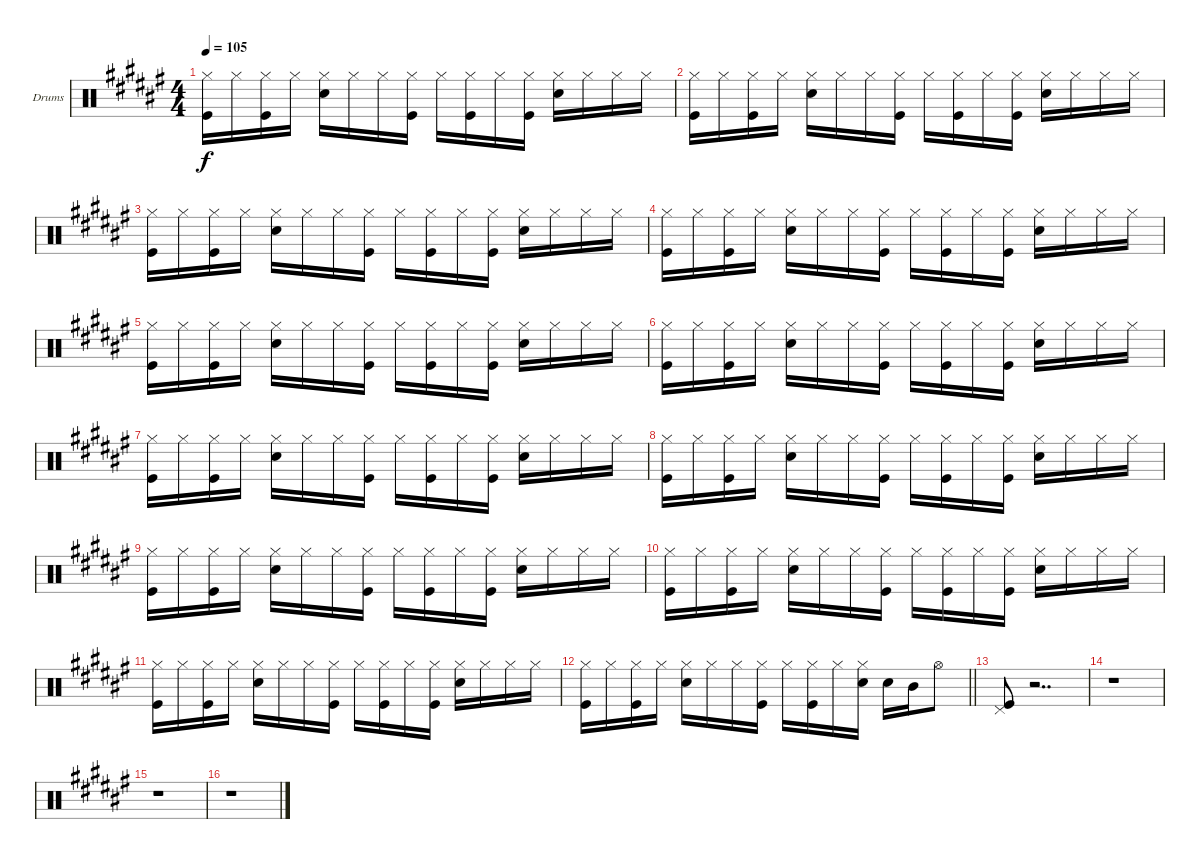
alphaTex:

\bracketExtendMode groupsimilarinstruments
\firstSystemTrackNameOrientation horizontal
\otherSystemsTrackNameOrientation horizontal
\track ("Fab Moretti" "Drums") {instrument percussion}
\staff {score}
\articulation defaults
\ts (4 4)
\tempo 105
\clef neutral
\ks f#
("Hi-Hat (closed)" "Kick (hit)").16{dy f} "Hi-Hat (closed)".16 ("Hi-Hat (closed)" "Kick (hit)").16 "Hi-Hat (closed)".16 ("Snare (hit) 2" "Hi-Hat (closed)").16 "Hi-Hat (closed)".16 "Hi-Hat (closed)".16 ("Hi-Hat (closed)" "Kick (hit)").16 "Hi-Hat (closed)".16 ("Hi-Hat (closed)" "Kick (hit)").16 "Hi-Hat (closed)".16 ("Hi-Hat (closed)" "Kick (hit)").16 ("Snare (hit) 2" "Hi-Hat (closed)").16 "Hi-Hat (closed)".16 "Hi-Hat (closed)".16 "Hi-Hat (closed)".16 |
("Hi-Hat (closed)" "Kick (hit)").16 "Hi-Hat (closed)".16 ("Hi-Hat (closed)" "Kick (hit)").16 "Hi-Hat (closed)".16 ("Snare (hit) 2" "Hi-Hat (closed)").16 "Hi-Hat (closed)".16 "Hi-Hat (closed)".16 ("Hi-Hat (closed)" "Kick (hit)").16 "Hi-Hat (closed)".16 ("Hi-Hat (closed)" "Kick (hit)").16 "Hi-Hat (closed)".16 ("Hi-Hat (closed)" "Kick (hit)").16 ("Snare (hit) 2" "Hi-Hat (closed)").16 "Hi-Hat (closed)".16 "Hi-Hat (closed)".16 "Hi-Hat (closed)".16 |
("Hi-Hat (closed)" "Kick (hit)").16 "Hi-Hat (closed)".16 ("Hi-Hat (closed)" "Kick (hit)").16 "Hi-Hat (closed)".16 ("Snare (hit) 2" "Hi-Hat (closed)").16 "Hi-Hat (closed)".16 "Hi-Hat (closed)".16 ("Hi-Hat (closed)" "Kick (hit)").16 "Hi-Hat (closed)".16 ("Hi-Hat (closed)" "Kick (hit)").16 "Hi-Hat (closed)".16 ("Hi-Hat (closed)" "Kick (hit)").16 ("Snare (hit) 2" "Hi-Hat (closed)").16 "Hi-Hat (closed)".16 "Hi-Hat (closed)".16 "Hi-Hat (closed)".16 |
("Hi-Hat (closed)" "Kick (hit)").16 "Hi-Hat (closed)".16 ("Hi-Hat (closed)" "Kick (hit)").16 "Hi-Hat (closed)".16 ("Snare (hit) 2" "Hi-Hat (closed)").16 "Hi-Hat (closed)".16 "Hi-Hat (closed)".16 ("Hi-Hat (closed)" "Kick (hit)").16 "Hi-Hat (closed)".16 ("Hi-Hat (closed)" "Kick (hit)").16 "Hi-Hat (closed)".16 ("Hi-Hat (closed)" "Kick (hit)").16 ("Snare (hit) 2" "Hi-Hat (closed)").16 "Hi-Hat (closed)".16 "Hi-Hat (closed)".16 "Hi-Hat (closed)".16 |
("Hi-Hat (closed)" "Kick (hit)").16 "Hi-Hat (closed)".16 ("Hi-Hat (closed)" "Kick (hit)").16 "Hi-Hat (closed)".16 ("Snare (hit) 2" "Hi-Hat (closed)").16 "Hi-Hat (closed)".16 "Hi-Hat (closed)".16 ("Hi-Hat (closed)" "Kick (hit)").16 "Hi-Hat (closed)".16 ("Hi-Hat (closed)" "Kick (hit)").16 "Hi-Hat (closed)".16 ("Hi-Hat (closed)" "Kick (hit)").16 ("Snare (hit) 2" "Hi-Hat (closed)").16 "Hi-Hat (closed)".16 "Hi-Hat (closed)".16 "Hi-Hat (closed)".16 |
("Hi-Hat (closed)" "Kick (hit)").16 "Hi-Hat (closed)".16 ("Hi-Hat (closed)" "Kick (hit)").16 "Hi-Hat (closed)".16 ("Snare (hit) 2" "Hi-Hat (closed)").16 "Hi-Hat (closed)".16 "Hi-Hat (closed)".16 ("Hi-Hat (closed)" "Kick (hit)").16 "Hi-Hat (closed)".16 ("Hi-Hat (closed)" "Kick (hit)").16 "Hi-Hat (closed)".16 ("Hi-Hat (closed)" "Kick (hit)").16 ("Snare (hit) 2" "Hi-Hat (closed)").16 "Hi-Hat (closed)".16 "Hi-Hat (closed)".16 "Hi-Hat (closed)".16 |
("Hi-Hat (closed)" "Kick (hit)").16 "Hi-Hat (closed)".16 ("Hi-Hat (closed)" "Kick (hit)").16 "Hi-Hat (closed)".16 ("Snare (hit) 2" "Hi-Hat (closed)").16 "Hi-Hat (closed)".16 "Hi-Hat (closed)".16 ("Hi-Hat (closed)" "Kick (hit)").16 "Hi-Hat (closed)".16 ("Hi-Hat (closed)" "Kick (hit)").16 "Hi-Hat (closed)".16 ("Hi-Hat (closed)" "Kick (hit)").16 ("Snare (hit) 2" "Hi-Hat (closed)").16 "Hi-Hat (closed)".16 "Hi-Hat (closed)".16 "Hi-Hat (closed)".16 |
("Hi-Hat (closed)" "Kick (hit)").16 "Hi-Hat (closed)".16 ("Hi-Hat (closed)" "Kick (hit)").16 "Hi-Hat (closed)".16 ("Snare (hit) 2" "Hi-Hat (closed)").16 "Hi-Hat (closed)".16 "Hi-Hat (closed)".16 ("Hi-Hat (closed)" "Kick (hit)").16 "Hi-Hat (closed)".16 ("Hi-Hat (closed)" "Kick (hit)").16 "Hi-Hat (closed)".16 ("Hi-Hat (closed)" "Kick (hit)").16 ("Snare (hit) 2" "Hi-Hat (closed)").16 "Hi-Hat (closed)".16 "Hi-Hat (closed)".16 "Hi-Hat (closed)".16 |
("Hi-Hat (closed)" "Kick (hit)").16 "Hi-Hat (closed)".16 ("Hi-Hat (closed)" "Kick (hit)").16 "Hi-Hat (closed)".16 ("Snare (hit) 2" "Hi-Hat (closed)").16 "Hi-Hat (closed)".16 "Hi-Hat (closed)".16 ("Hi-Hat (closed)" "Kick (hit)").16 "Hi-Hat (closed)".16 ("Hi-Hat (closed)" "Kick (hit)").16 "Hi-Hat (closed)".16 ("Hi-Hat (closed)" "Kick (hit)").16 ("Snare (hit) 2" "Hi-Hat (closed)").16 "Hi-Hat (closed)".16 "Hi-Hat (closed)".16 "Hi-Hat (closed)".16 |
("Hi-Hat (closed)" "Kick (hit)").16 "Hi-Hat (closed)".16 ("Hi-Hat (closed)" "Kick (hit)").16 "Hi-Hat (closed)".16 ("Snare (hit) 2" "Hi-Hat (closed)").16 "Hi-Hat (closed)".16 "Hi-Hat (closed)".16 ("Hi-Hat (closed)" "Kick (hit)").16 "Hi-Hat (closed)".16 ("Hi-Hat (closed)" "Kick (hit)").16 "Hi-Hat (closed)".16 ("Hi-Hat (closed)" "Kick (hit)").16 ("Snare (hit) 2" "Hi-Hat (closed)").16 "Hi-Hat (closed)".16 "Hi-Hat (closed)".16 "Hi-Hat (closed)".16 |
("Hi-Hat (closed)" "Kick (hit)").16 "Hi-Hat (closed)".16 ("Hi-Hat (closed)" "Kick (hit)").16 "Hi-Hat (closed)".16 ("Snare (hit) 2" "Hi-Hat (closed)").16 "Hi-Hat (closed)".16 "Hi-Hat (closed)".16 ("Hi-Hat (closed)" "Kick (hit)").16 "Hi-Hat (closed)".16 ("Hi-Hat (closed)" "Kick (hit)").16 "Hi-Hat (closed)".16 ("Hi-Hat (closed)" "Kick (hit)").16 ("Snare (hit) 2" "Hi-Hat (closed)").16 "Hi-Hat (closed)".16 "Hi-Hat (closed)".16 "Hi-Hat (closed)".16 |
\barLineRight lightlight
("Hi-Hat (closed)" "Kick (hit)").16 "Hi-Hat (closed)".16 ("Hi-Hat (closed)" "Kick (hit)").16 "Hi-Hat (closed)".16 ("Snare (hit) 2" "Hi-Hat (closed)").16 "Hi-Hat (closed)".16 "Hi-Hat (closed)".16 ("Hi-Hat (closed)" "Kick (hit)").16 "Hi-Hat (closed)".16 ("Hi-Hat (closed)" "Kick (hit)").16 "Hi-Hat (closed)".16 ("Hi-Hat (closed)" "Snare (hit) 2").16 "Snare (hit) 2".16 "Mid Tom (hit)".16 "Hi-Hat (open)".8 |
("Pedal Hi-Hat (hit)" "Kick (hit)").8 r.2{dd} |
r.1 |
r.1 |
r.1
